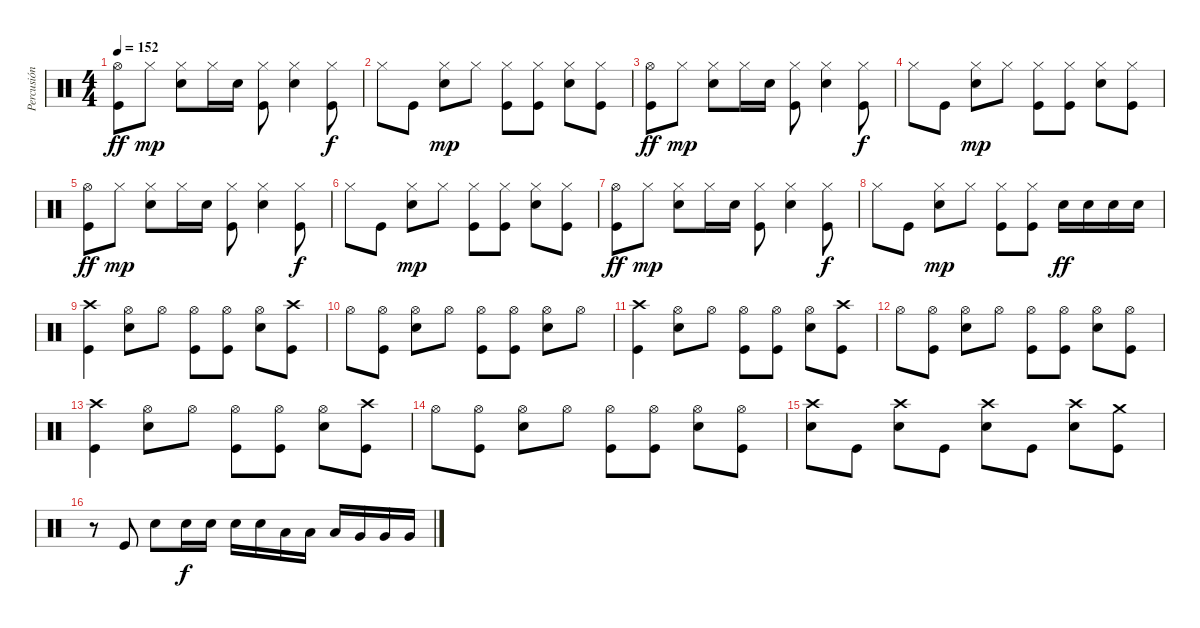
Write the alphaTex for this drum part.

\track ("Percusión" "Percusión") {instrument percussion}
\staff {score}
\articulation defaults
\ts (4 4)
\tempo 152
\clef neutral
\ks c
("Hi-Hat (open)" "Kick (hit)").8{dy ff} "Hi-Hat (closed)".8{dy mp} ("Snare (hit) 2" "Hi-Hat (closed)").8 "Hi-Hat (closed)".16 "Snare (hit) 2".16 ("Hi-Hat (closed)" "Kick (hit)").8 ("Snare (hit) 2" "Hi-Hat (closed)").4 ("Hi-Hat (closed)" "Kick (hit)").8{dy f} |
"Hi-Hat (closed)".8 "Kick (hit)".8 ("Hi-Hat (closed)" "Snare (hit) 2").8{dy mp} "Hi-Hat (closed)".8 ("Hi-Hat (closed)" "Kick (hit)").8 ("Hi-Hat (closed)" "Kick (hit)").8 ("Hi-Hat (closed)" "Snare (hit) 2").8 ("Hi-Hat (closed)" "Kick (hit)").8 |
("Hi-Hat (open)" "Kick (hit)").8{dy ff} "Hi-Hat (closed)".8{dy mp} ("Snare (hit) 2" "Hi-Hat (closed)").8 "Hi-Hat (closed)".16 "Snare (hit) 2".16 ("Hi-Hat (closed)" "Kick (hit)").8 ("Snare (hit) 2" "Hi-Hat (closed)").4 ("Hi-Hat (closed)" "Kick (hit)").8{dy f} |
"Hi-Hat (closed)".8 "Kick (hit)".8 ("Hi-Hat (closed)" "Snare (hit) 2").8{dy mp} "Hi-Hat (closed)".8 ("Hi-Hat (closed)" "Kick (hit)").8 ("Hi-Hat (closed)" "Kick (hit)").8 ("Hi-Hat (closed)" "Snare (hit) 2").8 ("Hi-Hat (closed)" "Kick (hit)").8 |
("Hi-Hat (open)" "Kick (hit)").8{dy ff} "Hi-Hat (closed)".8{dy mp} ("Snare (hit) 2" "Hi-Hat (closed)").8 "Hi-Hat (closed)".16 "Snare (hit) 2".16 ("Hi-Hat (closed)" "Kick (hit)").8 ("Snare (hit) 2" "Hi-Hat (closed)").4 ("Hi-Hat (closed)" "Kick (hit)").8{dy f} |
"Hi-Hat (closed)".8 "Kick (hit)".8 ("Hi-Hat (closed)" "Snare (hit) 2").8{dy mp} "Hi-Hat (closed)".8 ("Hi-Hat (closed)" "Kick (hit)").8 ("Hi-Hat (closed)" "Kick (hit)").8 ("Hi-Hat (closed)" "Snare (hit) 2").8 ("Hi-Hat (closed)" "Kick (hit)").8 |
("Hi-Hat (open)" "Kick (hit)").8{dy ff} "Hi-Hat (closed)".8{dy mp} ("Snare (hit) 2" "Hi-Hat (closed)").8 "Hi-Hat (closed)".16 "Snare (hit) 2".16 ("Hi-Hat (closed)" "Kick (hit)").8 ("Snare (hit) 2" "Hi-Hat (closed)").4 ("Hi-Hat (closed)" "Kick (hit)").8{dy f} |
"Hi-Hat (closed)".8 "Kick (hit)".8 ("Hi-Hat (closed)" "Snare (hit) 2").8{dy mp} "Hi-Hat (closed)".8 ("Hi-Hat (closed)" "Kick (hit)").8 ("Hi-Hat (closed)" "Kick (hit)").8 "Electric Snare (hit)".16{dy ff} "Electric Snare (hit)".16 "Electric Snare (hit)".16 "Electric Snare (hit)".16 |
("Crash high (hit)" "Kick (hit)").4 ("Hi-Hat (open)" "Electric Snare (hit)").8 "Hi-Hat (open)".8 ("Hi-Hat (open)" "Kick (hit)").8 ("Hi-Hat (open)" "Kick (hit)").8 ("Hi-Hat (open)" "Electric Snare (hit)").8 ("Crash high (hit)" "Kick (hit)").8 |
"Hi-Hat (open)".8 ("Hi-Hat (open)" "Kick (hit)").8 ("Hi-Hat (open)" "Electric Snare (hit)").8 "Hi-Hat (open)".8 ("Hi-Hat (open)" "Kick (hit)").8 ("Hi-Hat (open)" "Kick (hit)").8 ("Hi-Hat (open)" "Electric Snare (hit)").8 "Hi-Hat (open)".8 |
("Crash high (hit)" "Kick (hit)").4 ("Hi-Hat (open)" "Electric Snare (hit)").8 "Hi-Hat (open)".8 ("Hi-Hat (open)" "Kick (hit)").8 ("Hi-Hat (open)" "Kick (hit)").8 ("Hi-Hat (open)" "Electric Snare (hit)").8 ("Crash high (hit)" "Kick (hit)").8 |
"Hi-Hat (open)".8 ("Hi-Hat (open)" "Kick (hit)").8 ("Hi-Hat (open)" "Electric Snare (hit)").8 "Hi-Hat (open)".8 ("Hi-Hat (open)" "Kick (hit)").8 ("Hi-Hat (open)" "Kick (hit)").8 ("Hi-Hat (open)" "Electric Snare (hit)").8 ("Hi-Hat (open)" "Kick (hit)").8 |
("Crash high (hit)" "Kick (hit)").4 ("Hi-Hat (open)" "Electric Snare (hit)").8 "Hi-Hat (open)".8 ("Hi-Hat (open)" "Kick (hit)").8 ("Hi-Hat (open)" "Kick (hit)").8 ("Hi-Hat (open)" "Electric Snare (hit)").8 ("Crash high (hit)" "Kick (hit)").8 |
"Hi-Hat (open)".8 ("Hi-Hat (open)" "Kick (hit)").8 ("Hi-Hat (open)" "Electric Snare (hit)").8 "Hi-Hat (open)".8 ("Hi-Hat (open)" "Kick (hit)").8 ("Hi-Hat (open)" "Kick (hit)").8 ("Hi-Hat (open)" "Electric Snare (hit)").8 ("Hi-Hat (open)" "Kick (hit)").8 |
("Electric Snare (hit)" "Crash high (hit)").8 "Kick (hit)".8 ("Electric Snare (hit)" "Crash high (hit)").8 "Kick (hit)".8 ("Electric Snare (hit)" "Crash high (hit)").8 "Kick (hit)".8 ("Electric Snare (hit)" "Crash high (hit)").8 ("Crash medium (hit)" "Kick (hit)").8 |
r.8 "Kick (hit)".8 "Electric Snare (hit)".8 "Electric Snare (hit)".16{dy f} "Electric Snare (hit)".16 "Electric Snare (hit)".16 "Electric Snare (hit)".16 "Low Tom (hit)".16 "Low Tom (hit)".16 "Low Tom (hit)".16 "Very Low Tom (hit)".16 "Very Low Tom (hit)".16 "Very Low Tom (hit)".16
